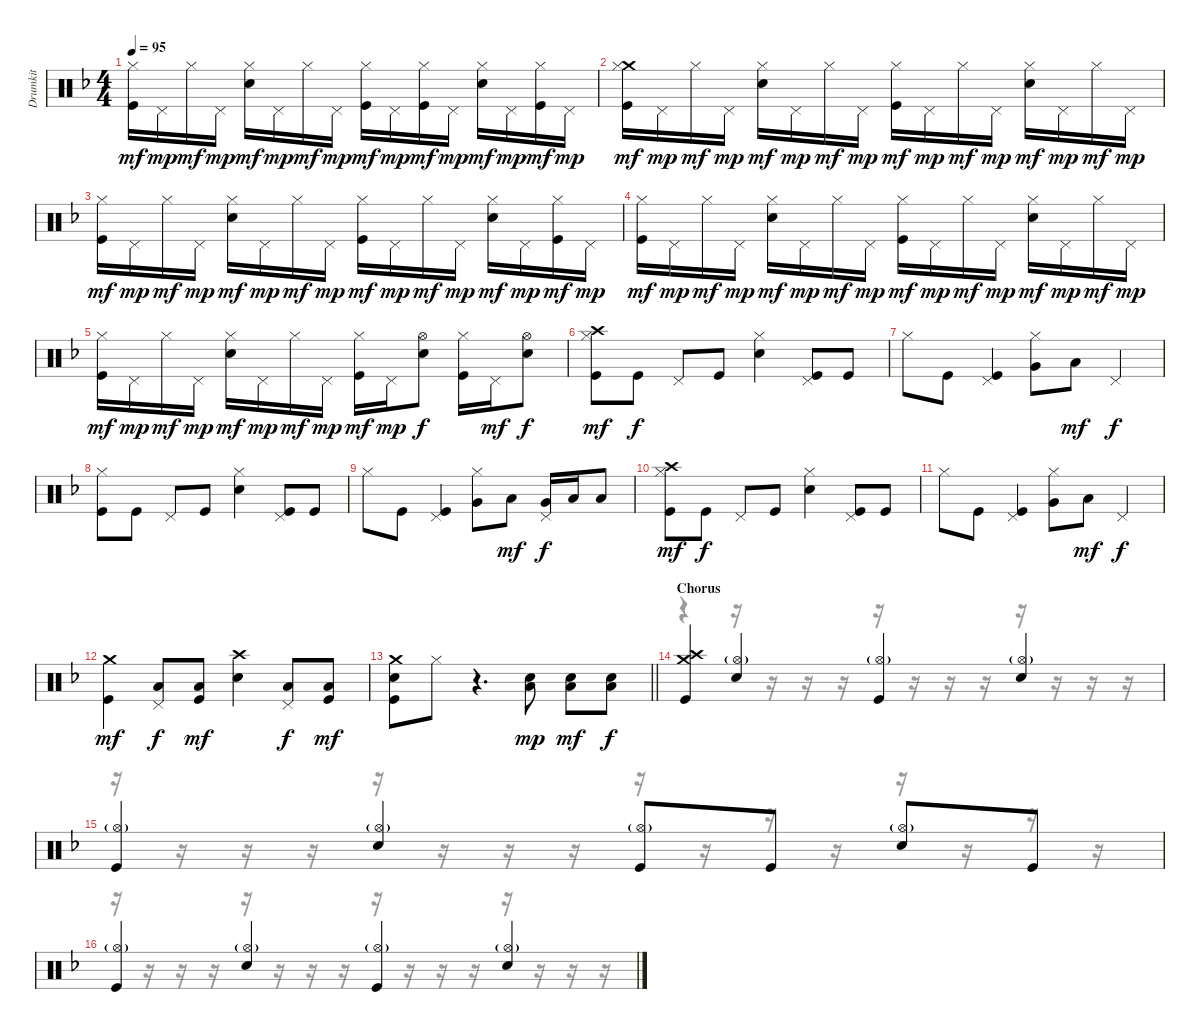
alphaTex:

\track ("Drumkit" "Drumkit") {instrument percussion}
\staff {score}
\articulation defaults
\voice
\ts (4 4)
\tempo 95
\clef neutral
\ks f
("Hi-Hat (closed)" "Kick (hit)").16{dy mf} "Pedal Hi-Hat (hit)".16{dy mp} "Hi-Hat (closed)".16{dy mf} "Pedal Hi-Hat (hit)".16{dy mp} ("Hi-Hat (closed)" "Snare (hit) 2").16{dy mf} "Pedal Hi-Hat (hit)".16{dy mp} "Hi-Hat (closed)".16{dy mf} "Pedal Hi-Hat (hit)".16{dy mp} ("Hi-Hat (closed)" "Kick (hit)").16{dy mf} "Pedal Hi-Hat (hit)".16{dy mp} ("Hi-Hat (closed)" "Kick (hit)").16{dy mf} "Pedal Hi-Hat (hit)".16{dy mp} ("Hi-Hat (closed)" "Snare (hit) 2").16{dy mf} "Pedal Hi-Hat (hit)".16{dy mp} ("Hi-Hat (closed)" "Kick (hit)").16{dy mf} "Pedal Hi-Hat (hit)".16{dy mp} |
("Crash medium (hit)" "Hi-Hat (closed)" "Kick (hit)").16{dy mf} "Pedal Hi-Hat (hit)".16{dy mp} "Hi-Hat (closed)".16{dy mf} "Pedal Hi-Hat (hit)".16{dy mp} ("Hi-Hat (closed)" "Snare (hit) 2").16{dy mf} "Pedal Hi-Hat (hit)".16{dy mp} "Hi-Hat (closed)".16{dy mf} "Pedal Hi-Hat (hit)".16{dy mp} ("Hi-Hat (closed)" "Kick (hit)").16{dy mf} "Pedal Hi-Hat (hit)".16{dy mp} "Hi-Hat (closed)".16{dy mf} "Pedal Hi-Hat (hit)".16{dy mp} ("Hi-Hat (closed)" "Snare (hit) 2").16{dy mf} "Pedal Hi-Hat (hit)".16{dy mp} "Hi-Hat (closed)".16{dy mf} "Pedal Hi-Hat (hit)".16{dy mp} |
("Hi-Hat (closed)" "Kick (hit)").16{dy mf} "Pedal Hi-Hat (hit)".16{dy mp} "Hi-Hat (closed)".16{dy mf} "Pedal Hi-Hat (hit)".16{dy mp} ("Hi-Hat (closed)" "Snare (hit) 2").16{dy mf} "Pedal Hi-Hat (hit)".16{dy mp} "Hi-Hat (closed)".16{dy mf} "Pedal Hi-Hat (hit)".16{dy mp} ("Hi-Hat (closed)" "Kick (hit)").16{dy mf} "Pedal Hi-Hat (hit)".16{dy mp} "Hi-Hat (closed)".16{dy mf} "Pedal Hi-Hat (hit)".16{dy mp} ("Hi-Hat (closed)" "Snare (hit) 2").16{dy mf} "Pedal Hi-Hat (hit)".16{dy mp} ("Hi-Hat (closed)" "Kick (hit)").16{dy mf} "Pedal Hi-Hat (hit)".16{dy mp} |
("Hi-Hat (closed)" "Kick (hit)").16{dy mf} "Pedal Hi-Hat (hit)".16{dy mp} "Hi-Hat (closed)".16{dy mf} "Pedal Hi-Hat (hit)".16{dy mp} ("Hi-Hat (closed)" "Snare (hit) 2").16{dy mf} "Pedal Hi-Hat (hit)".16{dy mp} "Hi-Hat (closed)".16{dy mf} "Pedal Hi-Hat (hit)".16{dy mp} ("Hi-Hat (closed)" "Kick (hit)").16{dy mf} "Pedal Hi-Hat (hit)".16{dy mp} "Hi-Hat (closed)".16{dy mf} "Pedal Hi-Hat (hit)".16{dy mp} ("Hi-Hat (closed)" "Snare (hit) 2").16{dy mf} "Pedal Hi-Hat (hit)".16{dy mp} "Hi-Hat (closed)".16{dy mf} "Pedal Hi-Hat (hit)".16{dy mp} |
("Hi-Hat (closed)" "Kick (hit)").16{dy mf} "Pedal Hi-Hat (hit)".16{dy mp} "Hi-Hat (closed)".16{dy mf} "Pedal Hi-Hat (hit)".16{dy mp} ("Hi-Hat (closed)" "Snare (hit) 2").16{dy mf} "Pedal Hi-Hat (hit)".16{dy mp} "Hi-Hat (closed)".16{dy mf} "Pedal Hi-Hat (hit)".16{dy mp} ("Hi-Hat (closed)" "Kick (hit)").16{dy mf} "Pedal Hi-Hat (hit)".16{dy mp} ("Hi-Hat (open)" "Snare (hit) 2").8{dy f} ("Hi-Hat (closed)" "Kick (hit)").16 "Pedal Hi-Hat (hit)".16{dy mf} ("Hi-Hat (open)" "Snare (hit) 2").8{dy f} |
("Crash high (hit)" "Hi-Hat (closed)" "Kick (hit)").8{dy mf} "Kick (hit)".8{dy f} "Pedal Hi-Hat (hit)".8 "Kick (hit)".8 ("Hi-Hat (closed)" "Snare (hit) 2").4 ("Pedal Hi-Hat (hit)" "Kick (hit)").8 "Kick (hit)".8 |
"Hi-Hat (closed)".8 "Kick (hit)".8 ("Pedal Hi-Hat (hit)" "Kick (hit)").4 ("Hi-Hat (closed)" "Very Low Tom (hit)").8 "Low Floor Tom (hit)".8{dy mf} "Pedal Hi-Hat (hit)".4{dy f} |
("Hi-Hat (closed)" "Kick (hit)").8 "Kick (hit)".8 "Pedal Hi-Hat (hit)".8 "Kick (hit)".8 ("Hi-Hat (closed)" "Snare (hit) 2").4 ("Pedal Hi-Hat (hit)" "Kick (hit)").8 "Kick (hit)".8 |
"Hi-Hat (closed)".8 "Kick (hit)".8 ("Pedal Hi-Hat (hit)" "Kick (hit)").4 ("Hi-Hat (closed)" "Very Low Tom (hit)").8 "Low Floor Tom (hit)".8{dy mf} ("Pedal Hi-Hat (hit)" "Very Low Tom (hit)").16{dy f} "Low Floor Tom (hit)".16 "Low Floor Tom (hit)".8 |
("Crash high (hit)" "Hi-Hat (closed)" "Kick (hit)").8{dy mf} "Kick (hit)".8{dy f} "Pedal Hi-Hat (hit)".8 "Kick (hit)".8 ("Hi-Hat (closed)" "Snare (hit) 2").4 ("Pedal Hi-Hat (hit)" "Kick (hit)").8 "Kick (hit)".8 |
"Hi-Hat (closed)".8 "Kick (hit)".8 ("Pedal Hi-Hat (hit)" "Kick (hit)").4 ("Hi-Hat (closed)" "Very Low Tom (hit)").8 "Low Floor Tom (hit)".8{dy mf} "Pedal Hi-Hat (hit)".4{dy f} |
("Crash medium (hit)" "Kick (hit)").4{dy mf} ("Pedal Hi-Hat (hit)" "Low Floor Tom (hit)").8{dy f} ("Low Floor Tom (hit)" "Kick (hit)").8{dy mf} ("Crash high (hit)" "Snare (hit) 2").4 ("Pedal Hi-Hat (hit)" "Low Floor Tom (hit)").8{dy f} ("Low Floor Tom (hit)" "Kick (hit)").8{dy mf} |
\barLineRight lightlight
("Crash medium (hit)" "Snare (hit) 2" "Kick (hit)").8 "Hi-Hat (closed)".8 r.4{d} ("Snare (hit) 2" "Low Floor Tom (hit)").8{dy mp} ("Snare (hit) 2" "Low Floor Tom (hit)").8{dy mf} ("Snare (hit) 2" "Low Floor Tom (hit)").8{dy f} |
\section ("" "Chorus")
("Crash high (hit)" "Crash medium (hit)" "Kick (hit)").4 ("Hi-Hat (open)"{g} "Snare (hit) 2").4 ("Hi-Hat (open)"{g} "Kick (hit)").4 ("Hi-Hat (open)"{g} "Snare (hit) 2").4 |
("Hi-Hat (open)"{g} "Kick (hit)").4 ("Hi-Hat (open)"{g} "Snare (hit) 2").4 ("Hi-Hat (open)"{g} "Kick (hit)").8 "Kick (hit)".8 ("Hi-Hat (open)"{g} "Snare (hit) 2").8 "Kick (hit)".8 |
("Hi-Hat (open)"{g} "Kick (hit)").4 ("Hi-Hat (open)"{g} "Snare (hit) 2").4 ("Hi-Hat (open)"{g} "Kick (hit)").4 ("Hi-Hat (open)"{g} "Snare (hit) 2").4
\voice
\clef neutral
\ottava regular
\simile none
\ks f
|
|
|
|
|
|
|
|
|
|
|
|
\barLineRight lightlight
|
r.4 r.16 r.16 r.16 r.16 r.16 r.16 r.16 r.16 r.16 r.16 r.16 r.16 |
r.16 r.16 r.16 r.16 r.16 r.16 r.16 r.16 r.16 r.16 r.16 r.16 r.16 r.16 r.16 r.16 |
r.16 r.16 r.16 r.16 r.16 r.16 r.16 r.16 r.16 r.16 r.16 r.16 r.16 r.16 r.16 r.16
